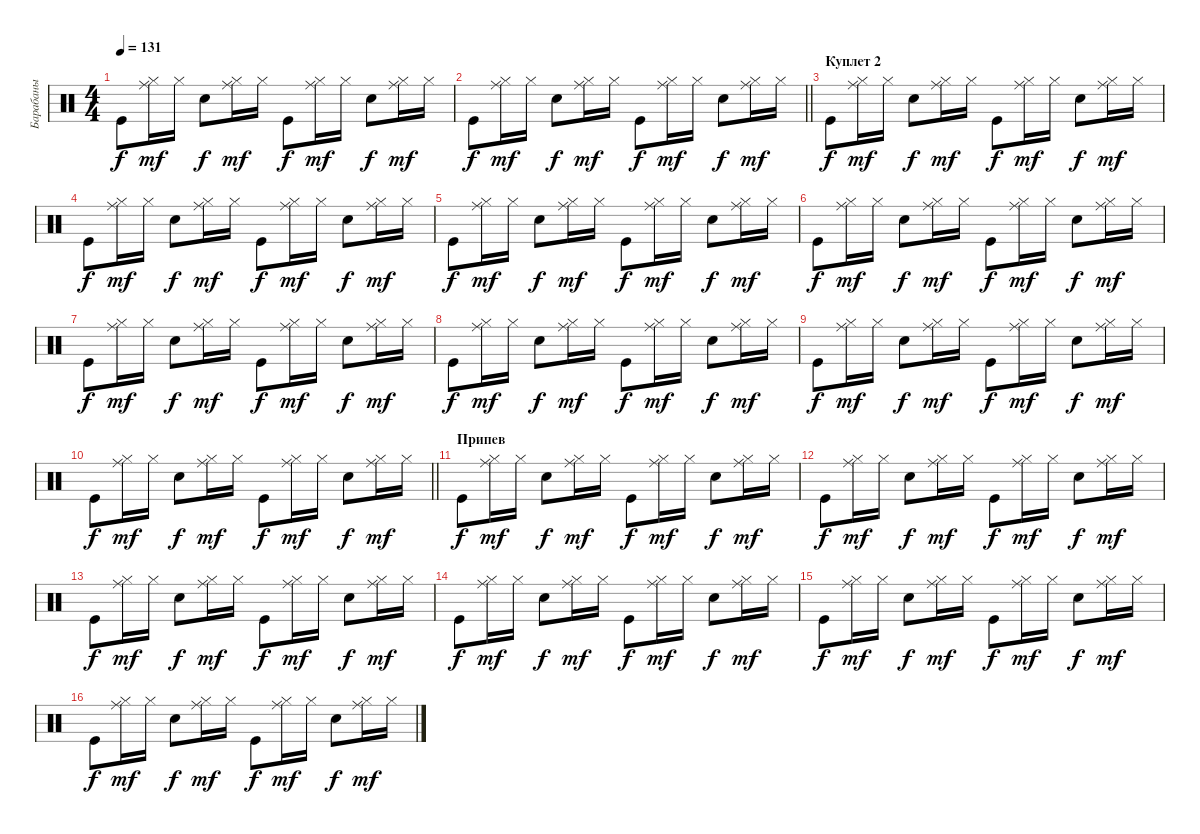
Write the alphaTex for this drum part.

\track ("Барабаны" "Барабаны") {instrument percussion}
\staff {score}
\articulation defaults
\ts (4 4)
\tempo 131
\clef neutral
\ks c "Kick (hit)".8{dy f}
("Hi-Hat (closed)" "Ride (middle)").16{dy mf} "Hi-Hat (closed)".16 "Snare (hit) 2".8{dy f} ("Hi-Hat (closed)" "Ride (middle)").16{dy mf} "Hi-Hat (closed)".16 "Kick (hit)".8{dy f} ("Hi-Hat (closed)" "Ride (middle)").16{dy mf} "Hi-Hat (closed)".16 "Snare (hit) 2".8{dy f} ("Hi-Hat (closed)" "Ride (middle)").16{dy mf} "Hi-Hat (closed)".16 |
\barLineRight lightlight "Kick (hit)".8{dy f}
("Hi-Hat (closed)" "Ride (middle)").16{dy mf} "Hi-Hat (closed)".16 "Snare (hit) 2".8{dy f} ("Hi-Hat (closed)" "Ride (middle)").16{dy mf} "Hi-Hat (closed)".16 "Kick (hit)".8{dy f} ("Hi-Hat (closed)" "Ride (middle)").16{dy mf} "Hi-Hat (closed)".16 "Snare (hit) 2".8{dy f} ("Hi-Hat (closed)" "Ride (middle)").16{dy mf} "Hi-Hat (closed)".16 |
\section ("" "Куплет 2")
"Kick (hit)".8{dy f} ("Hi-Hat (closed)" "Ride (middle)").16{dy mf} "Hi-Hat (closed)".16 "Snare (hit) 2".8{dy f} ("Hi-Hat (closed)" "Ride (middle)").16{dy mf} "Hi-Hat (closed)".16 "Kick (hit)".8{dy f} ("Hi-Hat (closed)" "Ride (middle)").16{dy mf} "Hi-Hat (closed)".16 "Snare (hit) 2".8{dy f} ("Hi-Hat (closed)" "Ride (middle)").16{dy mf} "Hi-Hat (closed)".16 |
"Kick (hit)".8{dy f} ("Hi-Hat (closed)" "Ride (middle)").16{dy mf} "Hi-Hat (closed)".16 "Snare (hit) 2".8{dy f} ("Hi-Hat (closed)" "Ride (middle)").16{dy mf} "Hi-Hat (closed)".16 "Kick (hit)".8{dy f} ("Hi-Hat (closed)" "Ride (middle)").16{dy mf} "Hi-Hat (closed)".16 "Snare (hit) 2".8{dy f} ("Hi-Hat (closed)" "Ride (middle)").16{dy mf} "Hi-Hat (closed)".16 |
"Kick (hit)".8{dy f} ("Hi-Hat (closed)" "Ride (middle)").16{dy mf} "Hi-Hat (closed)".16 "Snare (hit) 2".8{dy f} ("Hi-Hat (closed)" "Ride (middle)").16{dy mf} "Hi-Hat (closed)".16 "Kick (hit)".8{dy f} ("Hi-Hat (closed)" "Ride (middle)").16{dy mf} "Hi-Hat (closed)".16 "Snare (hit) 2".8{dy f} ("Hi-Hat (closed)" "Ride (middle)").16{dy mf} "Hi-Hat (closed)".16 |
"Kick (hit)".8{dy f} ("Hi-Hat (closed)" "Ride (middle)").16{dy mf} "Hi-Hat (closed)".16 "Snare (hit) 2".8{dy f} ("Hi-Hat (closed)" "Ride (middle)").16{dy mf} "Hi-Hat (closed)".16 "Kick (hit)".8{dy f} ("Hi-Hat (closed)" "Ride (middle)").16{dy mf} "Hi-Hat (closed)".16 "Snare (hit) 2".8{dy f} ("Hi-Hat (closed)" "Ride (middle)").16{dy mf} "Hi-Hat (closed)".16 |
"Kick (hit)".8{dy f} ("Hi-Hat (closed)" "Ride (middle)").16{dy mf} "Hi-Hat (closed)".16 "Snare (hit) 2".8{dy f} ("Hi-Hat (closed)" "Ride (middle)").16{dy mf} "Hi-Hat (closed)".16 "Kick (hit)".8{dy f} ("Hi-Hat (closed)" "Ride (middle)").16{dy mf} "Hi-Hat (closed)".16 "Snare (hit) 2".8{dy f} ("Hi-Hat (closed)" "Ride (middle)").16{dy mf} "Hi-Hat (closed)".16 |
"Kick (hit)".8{dy f} ("Hi-Hat (closed)" "Ride (middle)").16{dy mf} "Hi-Hat (closed)".16 "Snare (hit) 2".8{dy f} ("Hi-Hat (closed)" "Ride (middle)").16{dy mf} "Hi-Hat (closed)".16 "Kick (hit)".8{dy f} ("Hi-Hat (closed)" "Ride (middle)").16{dy mf} "Hi-Hat (closed)".16 "Snare (hit) 2".8{dy f} ("Hi-Hat (closed)" "Ride (middle)").16{dy mf} "Hi-Hat (closed)".16 |
"Kick (hit)".8{dy f} ("Hi-Hat (closed)" "Ride (middle)").16{dy mf} "Hi-Hat (closed)".16 "Snare (hit) 2".8{dy f} ("Hi-Hat (closed)" "Ride (middle)").16{dy mf} "Hi-Hat (closed)".16 "Kick (hit)".8{dy f} ("Hi-Hat (closed)" "Ride (middle)").16{dy mf} "Hi-Hat (closed)".16 "Snare (hit) 2".8{dy f} ("Hi-Hat (closed)" "Ride (middle)").16{dy mf} "Hi-Hat (closed)".16 |
\barLineRight lightlight "Kick (hit)".8{dy f}
("Hi-Hat (closed)" "Ride (middle)").16{dy mf} "Hi-Hat (closed)".16 "Snare (hit) 2".8{dy f} ("Hi-Hat (closed)" "Ride (middle)").16{dy mf} "Hi-Hat (closed)".16 "Kick (hit)".8{dy f} ("Hi-Hat (closed)" "Ride (middle)").16{dy mf} "Hi-Hat (closed)".16 "Snare (hit) 2".8{dy f} ("Hi-Hat (closed)" "Ride (middle)").16{dy mf} "Hi-Hat (closed)".16 |
\section ("" "Припев")
"Kick (hit)".8{dy f} ("Hi-Hat (closed)" "Ride (middle)").16{dy mf} "Hi-Hat (closed)".16 "Snare (hit) 2".8{dy f} ("Hi-Hat (closed)" "Ride (middle)").16{dy mf} "Hi-Hat (closed)".16 "Kick (hit)".8{dy f} ("Hi-Hat (closed)" "Ride (middle)").16{dy mf} "Hi-Hat (closed)".16 "Snare (hit) 2".8{dy f} ("Hi-Hat (closed)" "Ride (middle)").16{dy mf} "Hi-Hat (closed)".16 |
"Kick (hit)".8{dy f} ("Hi-Hat (closed)" "Ride (middle)").16{dy mf} "Hi-Hat (closed)".16 "Snare (hit) 2".8{dy f} ("Hi-Hat (closed)" "Ride (middle)").16{dy mf} "Hi-Hat (closed)".16 "Kick (hit)".8{dy f} ("Hi-Hat (closed)" "Ride (middle)").16{dy mf} "Hi-Hat (closed)".16 "Snare (hit) 2".8{dy f} ("Hi-Hat (closed)" "Ride (middle)").16{dy mf} "Hi-Hat (closed)".16 |
"Kick (hit)".8{dy f} ("Hi-Hat (closed)" "Ride (middle)").16{dy mf} "Hi-Hat (closed)".16 "Snare (hit) 2".8{dy f} ("Hi-Hat (closed)" "Ride (middle)").16{dy mf} "Hi-Hat (closed)".16 "Kick (hit)".8{dy f} ("Hi-Hat (closed)" "Ride (middle)").16{dy mf} "Hi-Hat (closed)".16 "Snare (hit) 2".8{dy f} ("Hi-Hat (closed)" "Ride (middle)").16{dy mf} "Hi-Hat (closed)".16 |
"Kick (hit)".8{dy f} ("Hi-Hat (closed)" "Ride (middle)").16{dy mf} "Hi-Hat (closed)".16 "Snare (hit) 2".8{dy f} ("Hi-Hat (closed)" "Ride (middle)").16{dy mf} "Hi-Hat (closed)".16 "Kick (hit)".8{dy f} ("Hi-Hat (closed)" "Ride (middle)").16{dy mf} "Hi-Hat (closed)".16 "Snare (hit) 2".8{dy f} ("Hi-Hat (closed)" "Ride (middle)").16{dy mf} "Hi-Hat (closed)".16 |
"Kick (hit)".8{dy f} ("Hi-Hat (closed)" "Ride (middle)").16{dy mf} "Hi-Hat (closed)".16 "Snare (hit) 2".8{dy f} ("Hi-Hat (closed)" "Ride (middle)").16{dy mf} "Hi-Hat (closed)".16 "Kick (hit)".8{dy f} ("Hi-Hat (closed)" "Ride (middle)").16{dy mf} "Hi-Hat (closed)".16 "Snare (hit) 2".8{dy f} ("Hi-Hat (closed)" "Ride (middle)").16{dy mf} "Hi-Hat (closed)".16 |
"Kick (hit)".8{dy f} ("Hi-Hat (closed)" "Ride (middle)").16{dy mf} "Hi-Hat (closed)".16 "Snare (hit) 2".8{dy f} ("Hi-Hat (closed)" "Ride (middle)").16{dy mf} "Hi-Hat (closed)".16 "Kick (hit)".8{dy f} ("Hi-Hat (closed)" "Ride (middle)").16{dy mf} "Hi-Hat (closed)".16 "Snare (hit) 2".8{dy f} ("Hi-Hat (closed)" "Ride (middle)").16{dy mf} "Hi-Hat (closed)".16
